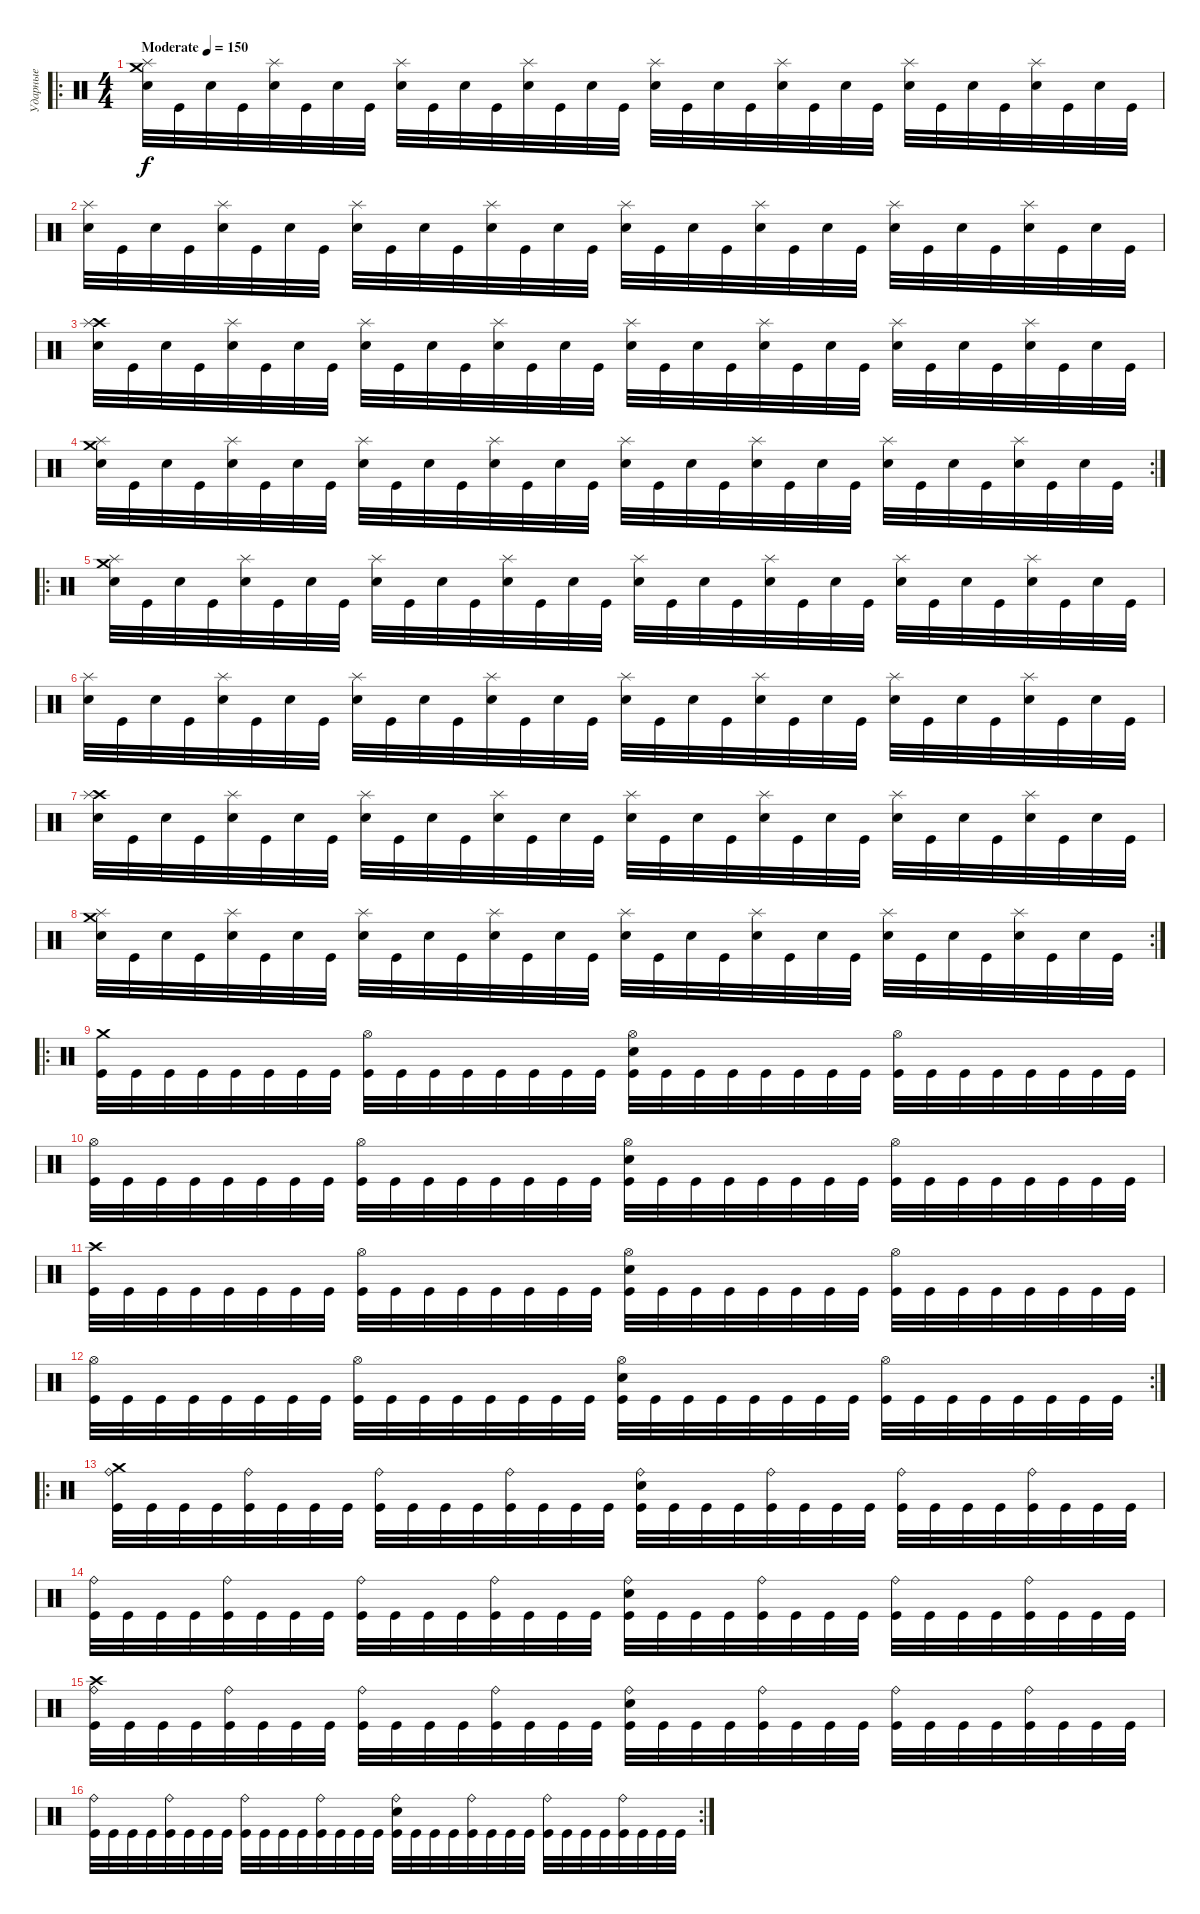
\track ("Ударные" "Ударные") {instrument percussion}
\staff {score}
\articulation defaults
\ro
\ts (4 4)
\tempo (150 "Moderate")
\clef neutral
\ks c
("Crash medium (hit)" "Splash (hit)" "Snare (hit) 2").32{dy f} "Kick (hit)".32 "Snare (hit) 2".32 "Kick (hit)".32 ("Splash (hit)" "Snare (hit) 2").32 "Kick (hit)".32 "Snare (hit) 2".32 "Kick (hit)".32 ("Splash (hit)" "Snare (hit) 2").32 "Kick (hit)".32 "Snare (hit) 2".32 "Kick (hit)".32 ("Splash (hit)" "Snare (hit) 2").32 "Kick (hit)".32 "Snare (hit) 2".32 "Kick (hit)".32 ("Splash (hit)" "Snare (hit) 2").32 "Kick (hit)".32 "Snare (hit) 2".32 "Kick (hit)".32 ("Splash (hit)" "Snare (hit) 2").32 "Kick (hit)".32 "Snare (hit) 2".32 "Kick (hit)".32 ("Splash (hit)" "Snare (hit) 2").32 "Kick (hit)".32 "Snare (hit) 2".32 "Kick (hit)".32 ("Splash (hit)" "Snare (hit) 2").32 "Kick (hit)".32 "Snare (hit) 2".32 "Kick (hit)".32 |
("Splash (hit)" "Snare (hit) 2").32 "Kick (hit)".32 "Snare (hit) 2".32 "Kick (hit)".32 ("Splash (hit)" "Snare (hit) 2").32 "Kick (hit)".32 "Snare (hit) 2".32 "Kick (hit)".32 ("Splash (hit)" "Snare (hit) 2").32 "Kick (hit)".32 "Snare (hit) 2".32 "Kick (hit)".32 ("Splash (hit)" "Snare (hit) 2").32 "Kick (hit)".32 "Snare (hit) 2".32 "Kick (hit)".32 ("Splash (hit)" "Snare (hit) 2").32 "Kick (hit)".32 "Snare (hit) 2".32 "Kick (hit)".32 ("Splash (hit)" "Snare (hit) 2").32 "Kick (hit)".32 "Snare (hit) 2".32 "Kick (hit)".32 ("Splash (hit)" "Snare (hit) 2").32 "Kick (hit)".32 "Snare (hit) 2".32 "Kick (hit)".32 ("Splash (hit)" "Snare (hit) 2").32 "Kick (hit)".32 "Snare (hit) 2".32 "Kick (hit)".32 |
("Crash high (hit)" "Splash (hit)" "Snare (hit) 2").32 "Kick (hit)".32 "Snare (hit) 2".32 "Kick (hit)".32 ("Splash (hit)" "Snare (hit) 2").32 "Kick (hit)".32 "Snare (hit) 2".32 "Kick (hit)".32 ("Splash (hit)" "Snare (hit) 2").32 "Kick (hit)".32 "Snare (hit) 2".32 "Kick (hit)".32 ("Splash (hit)" "Snare (hit) 2").32 "Kick (hit)".32 "Snare (hit) 2".32 "Kick (hit)".32 ("Splash (hit)" "Snare (hit) 2").32 "Kick (hit)".32 "Snare (hit) 2".32 "Kick (hit)".32 ("Splash (hit)" "Snare (hit) 2").32 "Kick (hit)".32 "Snare (hit) 2".32 "Kick (hit)".32 ("Splash (hit)" "Snare (hit) 2").32 "Kick (hit)".32 "Snare (hit) 2".32 "Kick (hit)".32 ("Splash (hit)" "Snare (hit) 2").32 "Kick (hit)".32 "Snare (hit) 2".32 "Kick (hit)".32 |
\rc 2
("Crash medium (hit)" "Splash (hit)" "Snare (hit) 2").32 "Kick (hit)".32 "Snare (hit) 2".32 "Kick (hit)".32 ("Splash (hit)" "Snare (hit) 2").32 "Kick (hit)".32 "Snare (hit) 2".32 "Kick (hit)".32 ("Splash (hit)" "Snare (hit) 2").32 "Kick (hit)".32 "Snare (hit) 2".32 "Kick (hit)".32 ("Splash (hit)" "Snare (hit) 2").32 "Kick (hit)".32 "Snare (hit) 2".32 "Kick (hit)".32 ("Splash (hit)" "Snare (hit) 2").32 "Kick (hit)".32 "Snare (hit) 2".32 "Kick (hit)".32 ("Splash (hit)" "Snare (hit) 2").32 "Kick (hit)".32 "Snare (hit) 2".32 "Kick (hit)".32 ("Splash (hit)" "Snare (hit) 2").32 "Kick (hit)".32 "Snare (hit) 2".32 "Kick (hit)".32 ("Splash (hit)" "Snare (hit) 2").32 "Kick (hit)".32 "Snare (hit) 2".32 "Kick (hit)".32 |
\ro
("Crash medium (hit)" "Splash (hit)" "Snare (hit) 2").32 "Kick (hit)".32 "Snare (hit) 2".32 "Kick (hit)".32 ("Splash (hit)" "Snare (hit) 2").32 "Kick (hit)".32 "Snare (hit) 2".32 "Kick (hit)".32 ("Splash (hit)" "Snare (hit) 2").32 "Kick (hit)".32 "Snare (hit) 2".32 "Kick (hit)".32 ("Splash (hit)" "Snare (hit) 2").32 "Kick (hit)".32 "Snare (hit) 2".32 "Kick (hit)".32 ("Splash (hit)" "Snare (hit) 2").32 "Kick (hit)".32 "Snare (hit) 2".32 "Kick (hit)".32 ("Splash (hit)" "Snare (hit) 2").32 "Kick (hit)".32 "Snare (hit) 2".32 "Kick (hit)".32 ("Splash (hit)" "Snare (hit) 2").32 "Kick (hit)".32 "Snare (hit) 2".32 "Kick (hit)".32 ("Splash (hit)" "Snare (hit) 2").32 "Kick (hit)".32 "Snare (hit) 2".32 "Kick (hit)".32 |
("Splash (hit)" "Snare (hit) 2").32 "Kick (hit)".32 "Snare (hit) 2".32 "Kick (hit)".32 ("Splash (hit)" "Snare (hit) 2").32 "Kick (hit)".32 "Snare (hit) 2".32 "Kick (hit)".32 ("Splash (hit)" "Snare (hit) 2").32 "Kick (hit)".32 "Snare (hit) 2".32 "Kick (hit)".32 ("Splash (hit)" "Snare (hit) 2").32 "Kick (hit)".32 "Snare (hit) 2".32 "Kick (hit)".32 ("Splash (hit)" "Snare (hit) 2").32 "Kick (hit)".32 "Snare (hit) 2".32 "Kick (hit)".32 ("Splash (hit)" "Snare (hit) 2").32 "Kick (hit)".32 "Snare (hit) 2".32 "Kick (hit)".32 ("Splash (hit)" "Snare (hit) 2").32 "Kick (hit)".32 "Snare (hit) 2".32 "Kick (hit)".32 ("Splash (hit)" "Snare (hit) 2").32 "Kick (hit)".32 "Snare (hit) 2".32 "Kick (hit)".32 |
("Crash high (hit)" "Splash (hit)" "Snare (hit) 2").32 "Kick (hit)".32 "Snare (hit) 2".32 "Kick (hit)".32 ("Splash (hit)" "Snare (hit) 2").32 "Kick (hit)".32 "Snare (hit) 2".32 "Kick (hit)".32 ("Splash (hit)" "Snare (hit) 2").32 "Kick (hit)".32 "Snare (hit) 2".32 "Kick (hit)".32 ("Splash (hit)" "Snare (hit) 2").32 "Kick (hit)".32 "Snare (hit) 2".32 "Kick (hit)".32 ("Splash (hit)" "Snare (hit) 2").32 "Kick (hit)".32 "Snare (hit) 2".32 "Kick (hit)".32 ("Splash (hit)" "Snare (hit) 2").32 "Kick (hit)".32 "Snare (hit) 2".32 "Kick (hit)".32 ("Splash (hit)" "Snare (hit) 2").32 "Kick (hit)".32 "Snare (hit) 2".32 "Kick (hit)".32 ("Splash (hit)" "Snare (hit) 2").32 "Kick (hit)".32 "Snare (hit) 2".32 "Kick (hit)".32 |
\rc 2
("Crash medium (hit)" "Splash (hit)" "Snare (hit) 2").32 "Kick (hit)".32 "Snare (hit) 2".32 "Kick (hit)".32 ("Splash (hit)" "Snare (hit) 2").32 "Kick (hit)".32 "Snare (hit) 2".32 "Kick (hit)".32 ("Splash (hit)" "Snare (hit) 2").32 "Kick (hit)".32 "Snare (hit) 2".32 "Kick (hit)".32 ("Splash (hit)" "Snare (hit) 2").32 "Kick (hit)".32 "Snare (hit) 2".32 "Kick (hit)".32 ("Splash (hit)" "Snare (hit) 2").32 "Kick (hit)".32 "Snare (hit) 2".32 "Kick (hit)".32 ("Splash (hit)" "Snare (hit) 2").32 "Kick (hit)".32 "Snare (hit) 2".32 "Kick (hit)".32 ("Splash (hit)" "Snare (hit) 2").32 "Kick (hit)".32 "Snare (hit) 2".32 "Kick (hit)".32 ("Splash (hit)" "Snare (hit) 2").32 "Kick (hit)".32 "Snare (hit) 2".32 "Kick (hit)".32 |
\ro
("Crash medium (hit)" "Kick (hit)").32 "Kick (hit)".32 "Kick (hit)".32 "Kick (hit)".32 "Kick (hit)".32 "Kick (hit)".32 "Kick (hit)".32 "Kick (hit)".32 ("Hi-Hat (open)" "Kick (hit)").32 "Kick (hit)".32 "Kick (hit)".32 "Kick (hit)".32 "Kick (hit)".32 "Kick (hit)".32 "Kick (hit)".32 "Kick (hit)".32 ("Snare (hit) 2" "Hi-Hat (open)" "Kick (hit)").32 "Kick (hit)".32 "Kick (hit)".32 "Kick (hit)".32 "Kick (hit)".32 "Kick (hit)".32 "Kick (hit)".32 "Kick (hit)".32 ("Hi-Hat (open)" "Kick (hit)").32 "Kick (hit)".32 "Kick (hit)".32 "Kick (hit)".32 "Kick (hit)".32 "Kick (hit)".32 "Kick (hit)".32 "Kick (hit)".32 |
("Hi-Hat (open)" "Kick (hit)").32 "Kick (hit)".32 "Kick (hit)".32 "Kick (hit)".32 "Kick (hit)".32 "Kick (hit)".32 "Kick (hit)".32 "Kick (hit)".32 ("Hi-Hat (open)" "Kick (hit)").32 "Kick (hit)".32 "Kick (hit)".32 "Kick (hit)".32 "Kick (hit)".32 "Kick (hit)".32 "Kick (hit)".32 "Kick (hit)".32 ("Snare (hit) 2" "Hi-Hat (open)" "Kick (hit)").32 "Kick (hit)".32 "Kick (hit)".32 "Kick (hit)".32 "Kick (hit)".32 "Kick (hit)".32 "Kick (hit)".32 "Kick (hit)".32 ("Hi-Hat (open)" "Kick (hit)").32 "Kick (hit)".32 "Kick (hit)".32 "Kick (hit)".32 "Kick (hit)".32 "Kick (hit)".32 "Kick (hit)".32 "Kick (hit)".32 |
("Crash high (hit)" "Kick (hit)").32 "Kick (hit)".32 "Kick (hit)".32 "Kick (hit)".32 "Kick (hit)".32 "Kick (hit)".32 "Kick (hit)".32 "Kick (hit)".32 ("Hi-Hat (open)" "Kick (hit)").32 "Kick (hit)".32 "Kick (hit)".32 "Kick (hit)".32 "Kick (hit)".32 "Kick (hit)".32 "Kick (hit)".32 "Kick (hit)".32 ("Snare (hit) 2" "Hi-Hat (open)" "Kick (hit)").32 "Kick (hit)".32 "Kick (hit)".32 "Kick (hit)".32 "Kick (hit)".32 "Kick (hit)".32 "Kick (hit)".32 "Kick (hit)".32 ("Hi-Hat (open)" "Kick (hit)").32 "Kick (hit)".32 "Kick (hit)".32 "Kick (hit)".32 "Kick (hit)".32 "Kick (hit)".32 "Kick (hit)".32 "Kick (hit)".32 |
\rc 2
("Hi-Hat (open)" "Kick (hit)").32 "Kick (hit)".32 "Kick (hit)".32 "Kick (hit)".32 "Kick (hit)".32 "Kick (hit)".32 "Kick (hit)".32 "Kick (hit)".32 ("Hi-Hat (open)" "Kick (hit)").32 "Kick (hit)".32 "Kick (hit)".32 "Kick (hit)".32 "Kick (hit)".32 "Kick (hit)".32 "Kick (hit)".32 "Kick (hit)".32 ("Snare (hit) 2" "Hi-Hat (open)" "Kick (hit)").32 "Kick (hit)".32 "Kick (hit)".32 "Kick (hit)".32 "Kick (hit)".32 "Kick (hit)".32 "Kick (hit)".32 "Kick (hit)".32 ("Hi-Hat (open)" "Kick (hit)").32 "Kick (hit)".32 "Kick (hit)".32 "Kick (hit)".32 "Kick (hit)".32 "Kick (hit)".32 "Kick (hit)".32 "Kick (hit)".32 |
\ro
("Crash medium (hit)" "Ride (bell)" "Kick (hit)").32 "Kick (hit)".32 "Kick (hit)".32 "Kick (hit)".32 ("Ride (bell)" "Kick (hit)").32 "Kick (hit)".32 "Kick (hit)".32 "Kick (hit)".32 ("Ride (bell)" "Kick (hit)").32 "Kick (hit)".32 "Kick (hit)".32 "Kick (hit)".32 ("Ride (bell)" "Kick (hit)").32 "Kick (hit)".32 "Kick (hit)".32 "Kick (hit)".32 ("Snare (hit) 2" "Ride (bell)" "Kick (hit)").32 "Kick (hit)".32 "Kick (hit)".32 "Kick (hit)".32 ("Ride (bell)" "Kick (hit)").32 "Kick (hit)".32 "Kick (hit)".32 "Kick (hit)".32 ("Ride (bell)" "Kick (hit)").32 "Kick (hit)".32 "Kick (hit)".32 "Kick (hit)".32 ("Ride (bell)" "Kick (hit)").32 "Kick (hit)".32 "Kick (hit)".32 "Kick (hit)".32 |
("Ride (bell)" "Kick (hit)").32 "Kick (hit)".32 "Kick (hit)".32 "Kick (hit)".32 ("Ride (bell)" "Kick (hit)").32 "Kick (hit)".32 "Kick (hit)".32 "Kick (hit)".32 ("Ride (bell)" "Kick (hit)").32 "Kick (hit)".32 "Kick (hit)".32 "Kick (hit)".32 ("Ride (bell)" "Kick (hit)").32 "Kick (hit)".32 "Kick (hit)".32 "Kick (hit)".32 ("Snare (hit) 2" "Ride (bell)" "Kick (hit)").32 "Kick (hit)".32 "Kick (hit)".32 "Kick (hit)".32 ("Ride (bell)" "Kick (hit)").32 "Kick (hit)".32 "Kick (hit)".32 "Kick (hit)".32 ("Ride (bell)" "Kick (hit)").32 "Kick (hit)".32 "Kick (hit)".32 "Kick (hit)".32 ("Ride (bell)" "Kick (hit)").32 "Kick (hit)".32 "Kick (hit)".32 "Kick (hit)".32 |
("Crash high (hit)" "Ride (bell)" "Kick (hit)").32 "Kick (hit)".32 "Kick (hit)".32 "Kick (hit)".32 ("Ride (bell)" "Kick (hit)").32 "Kick (hit)".32 "Kick (hit)".32 "Kick (hit)".32 ("Ride (bell)" "Kick (hit)").32 "Kick (hit)".32 "Kick (hit)".32 "Kick (hit)".32 ("Ride (bell)" "Kick (hit)").32 "Kick (hit)".32 "Kick (hit)".32 "Kick (hit)".32 ("Snare (hit) 2" "Ride (bell)" "Kick (hit)").32 "Kick (hit)".32 "Kick (hit)".32 "Kick (hit)".32 ("Ride (bell)" "Kick (hit)").32 "Kick (hit)".32 "Kick (hit)".32 "Kick (hit)".32 ("Ride (bell)" "Kick (hit)").32 "Kick (hit)".32 "Kick (hit)".32 "Kick (hit)".32 ("Ride (bell)" "Kick (hit)").32 "Kick (hit)".32 "Kick (hit)".32 "Kick (hit)".32 |
\rc 2
("Ride (bell)" "Kick (hit)").32 "Kick (hit)".32 "Kick (hit)".32 "Kick (hit)".32 ("Ride (bell)" "Kick (hit)").32 "Kick (hit)".32 "Kick (hit)".32 "Kick (hit)".32 ("Ride (bell)" "Kick (hit)").32 "Kick (hit)".32 "Kick (hit)".32 "Kick (hit)".32 ("Ride (bell)" "Kick (hit)").32 "Kick (hit)".32 "Kick (hit)".32 "Kick (hit)".32 ("Snare (hit) 2" "Ride (bell)" "Kick (hit)").32 "Kick (hit)".32 "Kick (hit)".32 "Kick (hit)".32 ("Ride (bell)" "Kick (hit)").32 "Kick (hit)".32 "Kick (hit)".32 "Kick (hit)".32 ("Ride (bell)" "Kick (hit)").32 "Kick (hit)".32 "Kick (hit)".32 "Kick (hit)".32 ("Ride (bell)" "Kick (hit)").32 "Kick (hit)".32 "Kick (hit)".32 "Kick (hit)".32
